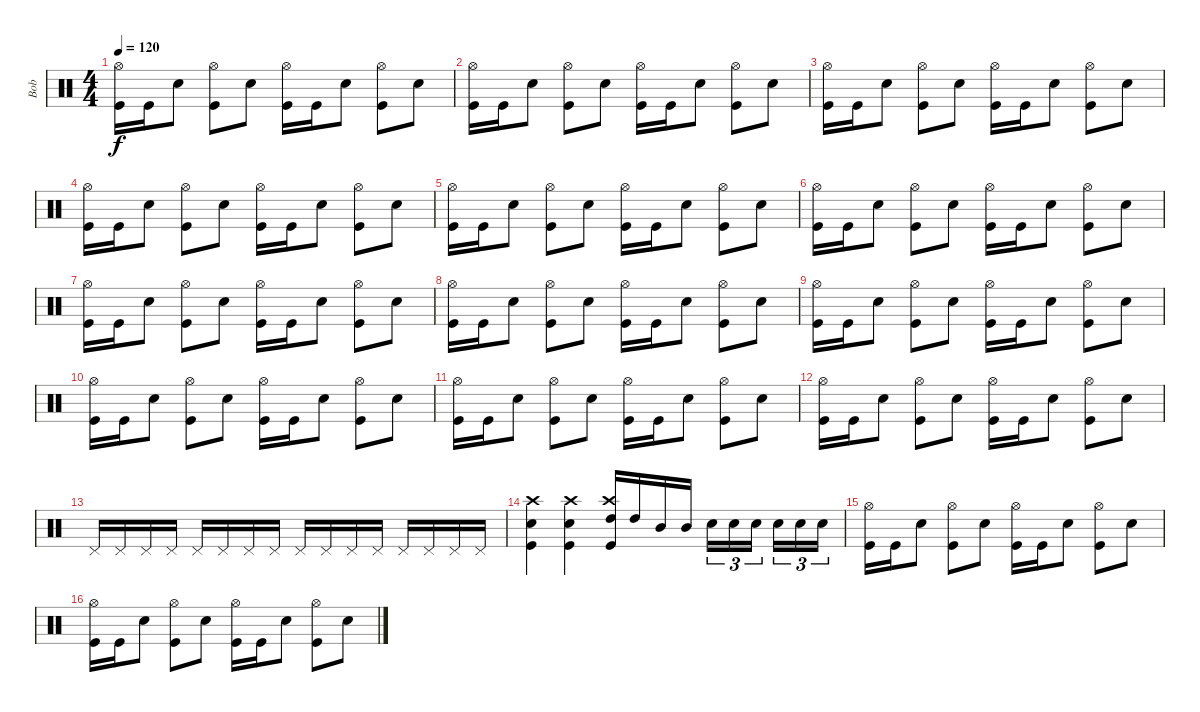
\track ("Bob" "Bob") {instrument percussion}
\staff {score}
\articulation defaults
\ts (4 4)
\tempo 120
\clef neutral
\ks c
("Hi-Hat (open)" "Kick (hit)").16{dy f} "Kick (hit)".16 "Snare (hit) 2".8 ("Hi-Hat (open)" "Kick (hit)").8 "Snare (hit) 2".8 ("Hi-Hat (open)" "Kick (hit)").16 "Kick (hit)".16 "Snare (hit) 2".8 ("Hi-Hat (open)" "Kick (hit)").8 "Snare (hit) 2".8 |
("Hi-Hat (open)" "Kick (hit)").16 "Kick (hit)".16 "Snare (hit) 2".8 ("Hi-Hat (open)" "Kick (hit)").8 "Snare (hit) 2".8 ("Hi-Hat (open)" "Kick (hit)").16 "Kick (hit)".16 "Snare (hit) 2".8 ("Hi-Hat (open)" "Kick (hit)").8 "Snare (hit) 2".8 |
("Hi-Hat (open)" "Kick (hit)").16 "Kick (hit)".16 "Snare (hit) 2".8 ("Hi-Hat (open)" "Kick (hit)").8 "Snare (hit) 2".8 ("Hi-Hat (open)" "Kick (hit)").16 "Kick (hit)".16 "Snare (hit) 2".8 ("Hi-Hat (open)" "Kick (hit)").8 "Snare (hit) 2".8 |
("Hi-Hat (open)" "Kick (hit)").16 "Kick (hit)".16 "Snare (hit) 2".8 ("Hi-Hat (open)" "Kick (hit)").8 "Snare (hit) 2".8 ("Hi-Hat (open)" "Kick (hit)").16 "Kick (hit)".16 "Snare (hit) 2".8 ("Hi-Hat (open)" "Kick (hit)").8 "Snare (hit) 2".8 |
("Hi-Hat (open)" "Kick (hit)").16 "Kick (hit)".16 "Snare (hit) 2".8 ("Hi-Hat (open)" "Kick (hit)").8 "Snare (hit) 2".8 ("Hi-Hat (open)" "Kick (hit)").16 "Kick (hit)".16 "Snare (hit) 2".8 ("Hi-Hat (open)" "Kick (hit)").8 "Snare (hit) 2".8 |
("Hi-Hat (open)" "Kick (hit)").16 "Kick (hit)".16 "Snare (hit) 2".8 ("Hi-Hat (open)" "Kick (hit)").8 "Snare (hit) 2".8 ("Hi-Hat (open)" "Kick (hit)").16 "Kick (hit)".16 "Snare (hit) 2".8 ("Hi-Hat (open)" "Kick (hit)").8 "Snare (hit) 2".8 |
("Hi-Hat (open)" "Kick (hit)").16 "Kick (hit)".16 "Snare (hit) 2".8 ("Hi-Hat (open)" "Kick (hit)").8 "Snare (hit) 2".8 ("Hi-Hat (open)" "Kick (hit)").16 "Kick (hit)".16 "Snare (hit) 2".8 ("Hi-Hat (open)" "Kick (hit)").8 "Snare (hit) 2".8 |
("Hi-Hat (open)" "Kick (hit)").16 "Kick (hit)".16 "Snare (hit) 2".8 ("Hi-Hat (open)" "Kick (hit)").8 "Snare (hit) 2".8 ("Hi-Hat (open)" "Kick (hit)").16 "Kick (hit)".16 "Snare (hit) 2".8 ("Hi-Hat (open)" "Kick (hit)").8 "Snare (hit) 2".8 |
("Hi-Hat (open)" "Kick (hit)").16 "Kick (hit)".16 "Snare (hit) 2".8 ("Hi-Hat (open)" "Kick (hit)").8 "Snare (hit) 2".8 ("Hi-Hat (open)" "Kick (hit)").16 "Kick (hit)".16 "Snare (hit) 2".8 ("Hi-Hat (open)" "Kick (hit)").8 "Snare (hit) 2".8 |
("Hi-Hat (open)" "Kick (hit)").16 "Kick (hit)".16 "Snare (hit) 2".8 ("Hi-Hat (open)" "Kick (hit)").8 "Snare (hit) 2".8 ("Hi-Hat (open)" "Kick (hit)").16 "Kick (hit)".16 "Snare (hit) 2".8 ("Hi-Hat (open)" "Kick (hit)").8 "Snare (hit) 2".8 |
("Hi-Hat (open)" "Kick (hit)").16 "Kick (hit)".16 "Snare (hit) 2".8 ("Hi-Hat (open)" "Kick (hit)").8 "Snare (hit) 2".8 ("Hi-Hat (open)" "Kick (hit)").16 "Kick (hit)".16 "Snare (hit) 2".8 ("Hi-Hat (open)" "Kick (hit)").8 "Snare (hit) 2".8 |
("Hi-Hat (open)" "Kick (hit)").16 "Kick (hit)".16 "Snare (hit) 2".8 ("Hi-Hat (open)" "Kick (hit)").8 "Snare (hit) 2".8 ("Hi-Hat (open)" "Kick (hit)").16 "Kick (hit)".16 "Snare (hit) 2".8 ("Hi-Hat (open)" "Kick (hit)").8 "Snare (hit) 2".8 |
"Pedal Hi-Hat (hit)".16 "Pedal Hi-Hat (hit)".16 "Pedal Hi-Hat (hit)".16 "Pedal Hi-Hat (hit)".16 "Pedal Hi-Hat (hit)".16 "Pedal Hi-Hat (hit)".16 "Pedal Hi-Hat (hit)".16 "Pedal Hi-Hat (hit)".16 "Pedal Hi-Hat (hit)".16 "Pedal Hi-Hat (hit)".16 "Pedal Hi-Hat (hit)".16 "Pedal Hi-Hat (hit)".16 "Pedal Hi-Hat (hit)".16 "Pedal Hi-Hat (hit)".16 "Pedal Hi-Hat (hit)".16 "Pedal Hi-Hat (hit)".16 |
("Crash high (hit)" "Snare (hit) 2" "Kick (hit)").4 ("Crash high (hit)" "Snare (hit) 2" "Kick (hit)").4 ("Crash high (hit)" "High Tom (hit)" "Kick (hit)").16 "High Tom (hit)".16 "Mid Tom (hit)".16 "Mid Tom (hit)".16 "Snare (hit) 2".16{tu (3 2)} "Snare (hit) 2".16{tu (3 2)} "Snare (hit) 2".16{tu (3 2)} "Snare (hit) 2".16{tu (3 2)} "Snare (hit) 2".16{tu (3 2)} "Snare (hit) 2".16{tu (3 2)} |
("Hi-Hat (open)" "Kick (hit)").16 "Kick (hit)".16 "Snare (hit) 2".8 ("Hi-Hat (open)" "Kick (hit)").8 "Snare (hit) 2".8 ("Hi-Hat (open)" "Kick (hit)").16 "Kick (hit)".16 "Snare (hit) 2".8 ("Hi-Hat (open)" "Kick (hit)").8 "Snare (hit) 2".8 |
("Hi-Hat (open)" "Kick (hit)").16 "Kick (hit)".16 "Snare (hit) 2".8 ("Hi-Hat (open)" "Kick (hit)").8 "Snare (hit) 2".8 ("Hi-Hat (open)" "Kick (hit)").16 "Kick (hit)".16 "Snare (hit) 2".8 ("Hi-Hat (open)" "Kick (hit)").8 "Snare (hit) 2".8
